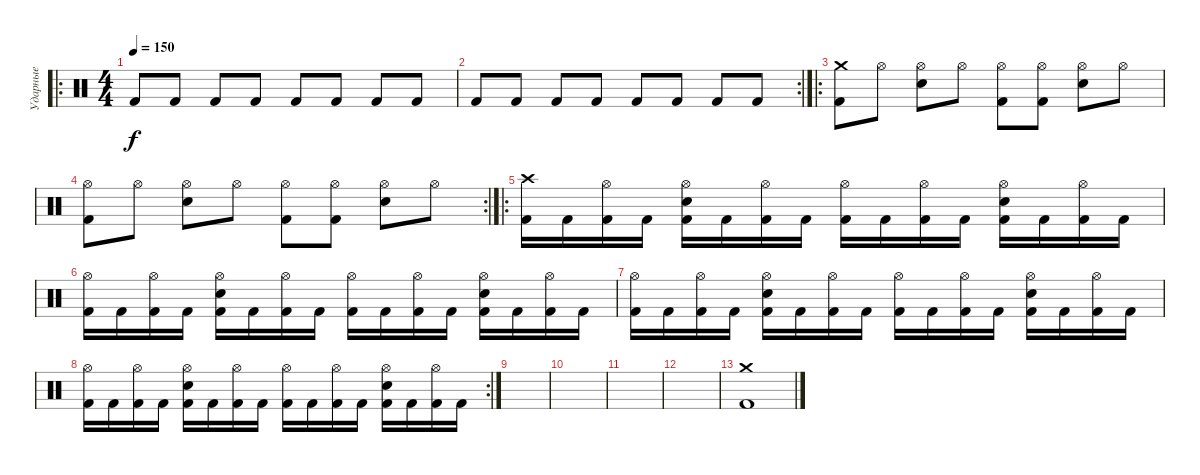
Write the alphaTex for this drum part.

\track ("Ударные" "Ударные") {instrument percussion}
\staff {score}
\articulation defaults
\ro
\ts (4 4)
\tempo 150
\clef neutral
\ks c "Kick (hit) 2".8{dy f} "Kick (hit) 2".8 "Kick (hit) 2".8 "Kick (hit) 2".8 "Kick (hit) 2".8 "Kick (hit) 2".8 "Kick (hit) 2".8 "Kick (hit) 2".8
|
\rc 2 "Kick (hit) 2".8 "Kick (hit) 2".8 "Kick (hit) 2".8 "Kick (hit) 2".8 "Kick (hit) 2".8 "Kick (hit) 2".8 "Kick (hit) 2".8 "Kick (hit) 2".8
|
\ro
("Kick (hit) 2" "Crash medium (hit)").8 "Hi-Hat (open)".8 ("Electric Snare (hit)" "Hi-Hat (open)").8 "Hi-Hat (open)".8 ("Kick (hit) 2" "Hi-Hat (open)").8 ("Kick (hit) 2" "Hi-Hat (open)").8 ("Electric Snare (hit)" "Hi-Hat (open)").8 "Hi-Hat (open)".8 |
\rc 2
("Kick (hit) 2" "Hi-Hat (open)").8 "Hi-Hat (open)".8 ("Electric Snare (hit)" "Hi-Hat (open)").8 "Hi-Hat (open)".8 ("Kick (hit) 2" "Hi-Hat (open)").8 ("Kick (hit) 2" "Hi-Hat (open)").8 ("Electric Snare (hit)" "Hi-Hat (open)").8 "Hi-Hat (open)".8 |
\ro
("Kick (hit) 2" "Crash high (hit)").16 "Kick (hit) 2".16 ("Kick (hit) 2" "Hi-Hat (open)").16 "Kick (hit) 2".16 ("Kick (hit) 2" "Electric Snare (hit)" "Hi-Hat (open)").16 "Kick (hit) 2".16 ("Kick (hit) 2" "Hi-Hat (open)").16 "Kick (hit) 2".16 ("Kick (hit) 2" "Hi-Hat (open)").16 "Kick (hit) 2".16 ("Kick (hit) 2" "Hi-Hat (open)").16 "Kick (hit) 2".16 ("Kick (hit) 2" "Electric Snare (hit)" "Hi-Hat (open)").16 "Kick (hit) 2".16 ("Kick (hit) 2" "Hi-Hat (open)").16 "Kick (hit) 2".16 |
("Kick (hit) 2" "Hi-Hat (open)").16 "Kick (hit) 2".16 ("Kick (hit) 2" "Hi-Hat (open)").16 "Kick (hit) 2".16 ("Kick (hit) 2" "Electric Snare (hit)" "Hi-Hat (open)").16 "Kick (hit) 2".16 ("Kick (hit) 2" "Hi-Hat (open)").16 "Kick (hit) 2".16 ("Kick (hit) 2" "Hi-Hat (open)").16 "Kick (hit) 2".16 ("Kick (hit) 2" "Hi-Hat (open)").16 "Kick (hit) 2".16 ("Kick (hit) 2" "Electric Snare (hit)" "Hi-Hat (open)").16 "Kick (hit) 2".16 ("Kick (hit) 2" "Hi-Hat (open)").16 "Kick (hit) 2".16 |
("Kick (hit) 2" "Hi-Hat (open)").16 "Kick (hit) 2".16 ("Kick (hit) 2" "Hi-Hat (open)").16 "Kick (hit) 2".16 ("Kick (hit) 2" "Electric Snare (hit)" "Hi-Hat (open)").16 "Kick (hit) 2".16 ("Kick (hit) 2" "Hi-Hat (open)").16 "Kick (hit) 2".16 ("Kick (hit) 2" "Hi-Hat (open)").16 "Kick (hit) 2".16 ("Kick (hit) 2" "Hi-Hat (open)").16 "Kick (hit) 2".16 ("Kick (hit) 2" "Electric Snare (hit)" "Hi-Hat (open)").16 "Kick (hit) 2".16 ("Kick (hit) 2" "Hi-Hat (open)").16 "Kick (hit) 2".16 |
\rc 2
("Kick (hit) 2" "Hi-Hat (open)").16 "Kick (hit) 2".16 ("Kick (hit) 2" "Hi-Hat (open)").16 "Kick (hit) 2".16 ("Kick (hit) 2" "Electric Snare (hit)" "Hi-Hat (open)").16 "Kick (hit) 2".16 ("Kick (hit) 2" "Hi-Hat (open)").16 "Kick (hit) 2".16 ("Kick (hit) 2" "Hi-Hat (open)").16 "Kick (hit) 2".16 ("Kick (hit) 2" "Hi-Hat (open)").16 "Kick (hit) 2".16 ("Kick (hit) 2" "Electric Snare (hit)" "Hi-Hat (open)").16 "Kick (hit) 2".16 ("Kick (hit) 2" "Hi-Hat (open)").16 "Kick (hit) 2".16 |
|
|
|
|
("Kick (hit) 2" "Crash medium (hit)").1
